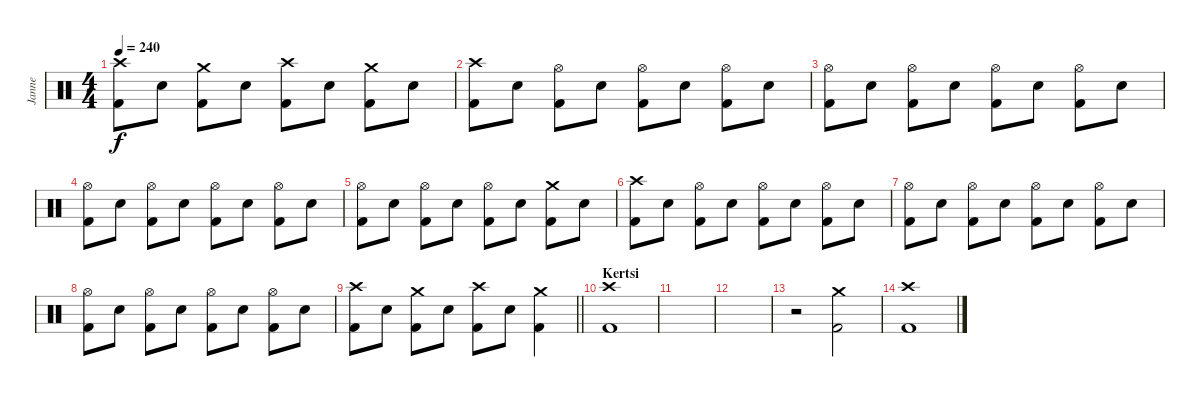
\track ("Janne" "Janne") {instrument percussion}
\staff {score}
\articulation defaults
\ts (4 4)
\tempo 240
\clef neutral
\ks c
("Crash high (hit)" "Kick (hit) 2").8{dy f} "Electric Snare (hit)".8 ("Crash medium (hit)" "Kick (hit) 2").8 "Electric Snare (hit)".8 ("Crash high (hit)" "Kick (hit) 2").8 "Electric Snare (hit)".8 ("Crash medium (hit)" "Kick (hit) 2").8 "Electric Snare (hit)".8 |
("Crash high (hit)" "Kick (hit) 2").8 "Electric Snare (hit)".8 ("Hi-Hat (open)" "Kick (hit) 2").8 "Electric Snare (hit)".8 ("Hi-Hat (open)" "Kick (hit) 2").8 "Electric Snare (hit)".8 ("Hi-Hat (open)" "Kick (hit) 2").8 "Electric Snare (hit)".8 |
("Hi-Hat (open)" "Kick (hit) 2").8 "Electric Snare (hit)".8 ("Hi-Hat (open)" "Kick (hit) 2").8 "Electric Snare (hit)".8 ("Hi-Hat (open)" "Kick (hit) 2").8 "Electric Snare (hit)".8 ("Hi-Hat (open)" "Kick (hit) 2").8 "Electric Snare (hit)".8 |
("Hi-Hat (open)" "Kick (hit) 2").8 "Electric Snare (hit)".8 ("Hi-Hat (open)" "Kick (hit) 2").8 "Electric Snare (hit)".8 ("Hi-Hat (open)" "Kick (hit) 2").8 "Electric Snare (hit)".8 ("Hi-Hat (open)" "Kick (hit) 2").8 "Electric Snare (hit)".8 |
("Hi-Hat (open)" "Kick (hit) 2").8 "Electric Snare (hit)".8 ("Hi-Hat (open)" "Kick (hit) 2").8 "Electric Snare (hit)".8 ("Hi-Hat (open)" "Kick (hit) 2").8 "Electric Snare (hit)".8 ("Crash medium (hit)" "Kick (hit) 2").8 "Electric Snare (hit)".8 |
("Crash high (hit)" "Kick (hit) 2").8 "Electric Snare (hit)".8 ("Hi-Hat (open)" "Kick (hit) 2").8 "Electric Snare (hit)".8 ("Hi-Hat (open)" "Kick (hit) 2").8 "Electric Snare (hit)".8 ("Hi-Hat (open)" "Kick (hit) 2").8 "Electric Snare (hit)".8 |
("Hi-Hat (open)" "Kick (hit) 2").8 "Electric Snare (hit)".8 ("Hi-Hat (open)" "Kick (hit) 2").8 "Electric Snare (hit)".8 ("Hi-Hat (open)" "Kick (hit) 2").8 "Electric Snare (hit)".8 ("Hi-Hat (open)" "Kick (hit) 2").8 "Electric Snare (hit)".8 |
("Hi-Hat (open)" "Kick (hit) 2").8 "Electric Snare (hit)".8 ("Hi-Hat (open)" "Kick (hit) 2").8 "Electric Snare (hit)".8 ("Hi-Hat (open)" "Kick (hit) 2").8 "Electric Snare (hit)".8 ("Hi-Hat (open)" "Kick (hit) 2").8 "Electric Snare (hit)".8 |
\barLineRight lightlight
("Crash high (hit)" "Kick (hit) 2").8 "Electric Snare (hit)".8 ("Crash medium (hit)" "Kick (hit) 2").8 "Electric Snare (hit)".8 ("Crash high (hit)" "Kick (hit) 2").8 "Electric Snare (hit)".8 ("Crash medium (hit)" "Kick (hit) 2").4 |
\section ("" "Kertsi")
("Crash high (hit)" "Kick (hit) 2").1 |
|
|
r.2 ("Crash medium (hit)" "Kick (hit) 2").2 |
("Crash high (hit)" "Kick (hit) 2").1
